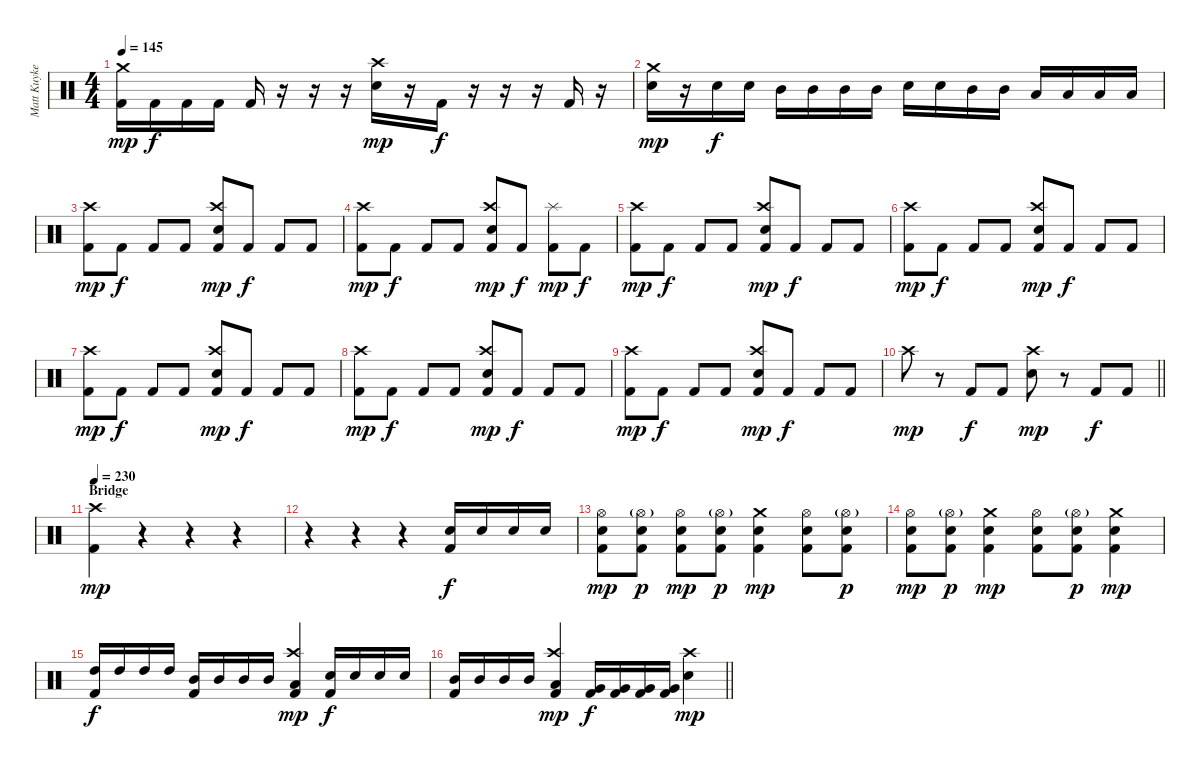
\track ("Matt Kuykendall" "Matt Kuyke") {instrument percussion}
\staff {score}
\articulation defaults
\ts (4 4)
\tempo 145
\clef neutral
\ks c
("Crash medium (hit)" "Kick (hit) 2").16{dy mp} "Kick (hit) 2".16{dy f} "Kick (hit) 2".16 "Kick (hit) 2".16 "Kick (hit) 2".16 r.16 r.16 r.16 ("Crash high (hit)" "Electric Snare (hit)").16{dy mp} r.16 "Kick (hit) 2".16{dy f} r.16 r.16 r.16 "Kick (hit) 2".16 r.16 |
("Crash medium (hit)" "Electric Snare (hit)").16{dy mp} r.16 "Electric Snare (hit)".16{dy f} "Electric Snare (hit)".16 "Mid Tom (hit)".16 "Mid Tom (hit)".16 "Mid Tom (hit)".16 "Mid Tom (hit)".16 "Electric Snare (hit)".16 "Electric Snare (hit)".16 "Mid Tom (hit)".16 "Mid Tom (hit)".16 "Low Tom (hit)".16 "Low Tom (hit)".16 "Low Tom (hit)".16 "Low Tom (hit)".16 |
("Crash high (hit)" "Kick (hit) 2").8{dy mp} "Kick (hit) 2".8{dy f} "Kick (hit) 2".8 "Kick (hit) 2".8 ("Crash high (hit)" "Electric Snare (hit)" "Kick (hit) 2").8{dy mp} "Kick (hit) 2".8{dy f} "Kick (hit) 2".8 "Kick (hit) 2".8 |
("Crash high (hit)" "Kick (hit) 2").8{dy mp} "Kick (hit) 2".8{dy f} "Kick (hit) 2".8 "Kick (hit) 2".8 ("Crash high (hit)" "Electric Snare (hit)" "Kick (hit) 2").8{dy mp} "Kick (hit) 2".8{dy f} ("Splash (hit)" "Kick (hit) 2").8{dy mp} "Kick (hit) 2".8{dy f} |
("Crash high (hit)" "Kick (hit) 2").8{dy mp} "Kick (hit) 2".8{dy f} "Kick (hit) 2".8 "Kick (hit) 2".8 ("Crash high (hit)" "Electric Snare (hit)" "Kick (hit) 2").8{dy mp} "Kick (hit) 2".8{dy f} "Kick (hit) 2".8 "Kick (hit) 2".8 |
("Crash high (hit)" "Kick (hit) 2").8{dy mp} "Kick (hit) 2".8{dy f} "Kick (hit) 2".8 "Kick (hit) 2".8 ("Crash high (hit)" "Electric Snare (hit)" "Kick (hit) 2").8{dy mp} "Kick (hit) 2".8{dy f} "Kick (hit) 2".8 "Kick (hit) 2".8 |
("Crash high (hit)" "Kick (hit) 2").8{dy mp} "Kick (hit) 2".8{dy f} "Kick (hit) 2".8 "Kick (hit) 2".8 ("Crash high (hit)" "Electric Snare (hit)" "Kick (hit) 2").8{dy mp} "Kick (hit) 2".8{dy f} "Kick (hit) 2".8 "Kick (hit) 2".8 |
("Crash high (hit)" "Kick (hit) 2").8{dy mp} "Kick (hit) 2".8{dy f} "Kick (hit) 2".8 "Kick (hit) 2".8 ("Crash high (hit)" "Electric Snare (hit)" "Kick (hit) 2").8{dy mp} "Kick (hit) 2".8{dy f} "Kick (hit) 2".8 "Kick (hit) 2".8 |
("Crash high (hit)" "Kick (hit) 2").8{dy mp} "Kick (hit) 2".8{dy f} "Kick (hit) 2".8 "Kick (hit) 2".8 ("Crash high (hit)" "Electric Snare (hit)" "Kick (hit) 2").8{dy mp} "Kick (hit) 2".8{dy f} "Kick (hit) 2".8 "Kick (hit) 2".8 |
\barLineRight lightlight "Crash high (hit)".8{dy mp}
r.8 "Kick (hit) 2".8{dy f} "Kick (hit) 2".8 ("Crash high (hit)" "Electric Snare (hit)").8{dy mp} r.8 "Kick (hit) 2".8{dy f} "Kick (hit) 2".8 |
\section ("" "Bridge")
\tempo 230
("Crash high (hit)" "Kick (hit) 2").4{dy mp} r.4 r.4 r.4 |
r.4 r.4 r.4 ("Electric Snare (hit)" "Kick (hit) 2").16{dy f} "Electric Snare (hit)".16 "Electric Snare (hit)".16 "Electric Snare (hit)".16 |
("Hi-Hat (open)" "Electric Snare (hit)" "Kick (hit) 2").8{dy mp} ("Hi-Hat (open)"{g} "Electric Snare (hit)" "Kick (hit) 2").8{dy p} ("Hi-Hat (open)" "Electric Snare (hit)" "Kick (hit) 2").8{dy mp} ("Hi-Hat (open)"{g} "Electric Snare (hit)" "Kick (hit) 2").8{dy p} ("Crash medium (hit)" "Electric Snare (hit)" "Kick (hit) 2").4{dy mp} ("Hi-Hat (open)" "Electric Snare (hit)" "Kick (hit) 2").8 ("Hi-Hat (open)"{g} "Electric Snare (hit)" "Kick (hit) 2").8{dy p} |
("Hi-Hat (open)" "Electric Snare (hit)" "Kick (hit) 2").8{dy mp} ("Hi-Hat (open)"{g} "Electric Snare (hit)" "Kick (hit) 2").8{dy p} ("Crash medium (hit)" "Electric Snare (hit)" "Kick (hit) 2").4{dy mp} ("Hi-Hat (open)" "Electric Snare (hit)" "Kick (hit) 2").8 ("Hi-Hat (open)"{g} "Electric Snare (hit)" "Kick (hit) 2").8{dy p} ("Crash medium (hit)" "Electric Snare (hit)" "Kick (hit) 2").4{dy mp} |
("High Tom (hit)" "Kick (hit) 2").16{dy f} "High Tom (hit)".16 "High Tom (hit)".16 "High Tom (hit)".16 ("Mid Tom (hit)" "Kick (hit) 2").16 "Mid Tom (hit)".16 "Mid Tom (hit)".16 "Mid Tom (hit)".16 ("Crash high (hit)" "Low Tom (hit)" "Kick (hit) 2").4{dy mp} ("Electric Snare (hit)" "Kick (hit) 2").16{dy f} "Electric Snare (hit)".16 "Electric Snare (hit)".16 "Electric Snare (hit)".16 |
\barLineRight lightlight
("Mid Tom (hit)" "Kick (hit) 2").16 "Mid Tom (hit)".16 "Mid Tom (hit)".16 "Mid Tom (hit)".16 ("Crash high (hit)" "Low Tom (hit)" "Kick (hit) 2").4{dy mp} ("Very Low Tom (hit)" "Kick (hit) 2").16{dy f} ("Very Low Tom (hit)" "Kick (hit) 2").16 ("Very Low Tom (hit)" "Kick (hit) 2").16 ("Very Low Tom (hit)" "Kick (hit) 2").16 ("Crash high (hit)" "Electric Snare (hit)").4{dy mp}
